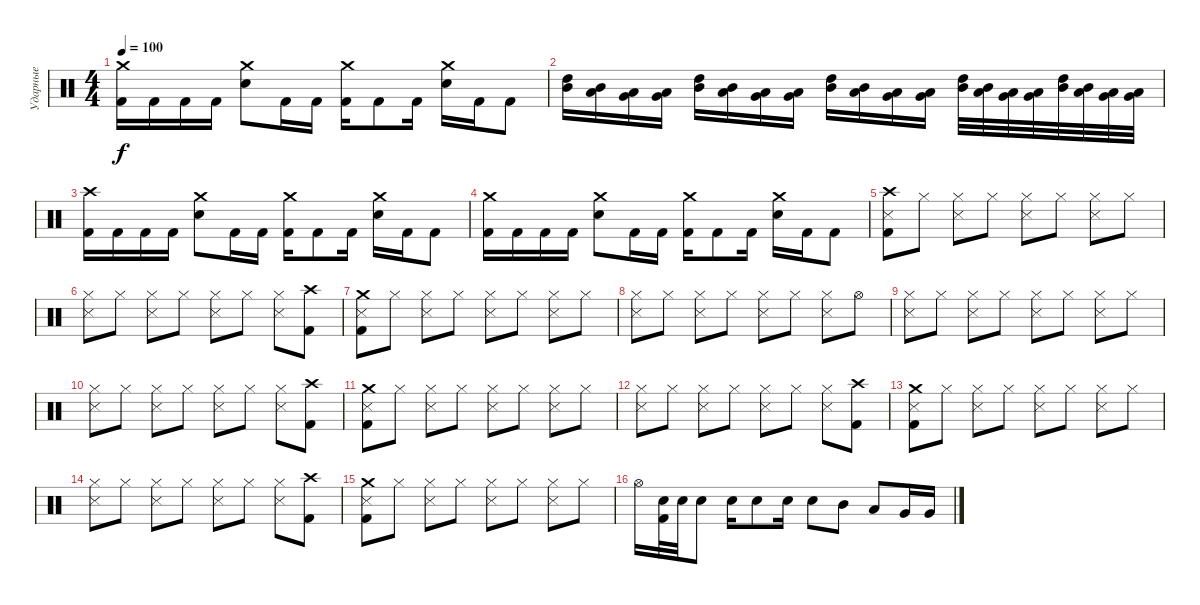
\track ("Ударные" "Ударные") {instrument percussion}
\staff {score}
\articulation defaults
\ts (4 4)
\tempo 100
\clef neutral
\ks c
("Crash medium (hit)" "Kick (hit) 2").16{dy f} "Kick (hit) 2".16 "Kick (hit) 2".16 "Kick (hit) 2".16 ("Crash medium (hit)" "Electric Snare (hit)").8 "Kick (hit) 2".16 "Kick (hit) 2".16 ("Crash medium (hit)" "Kick (hit) 2").16 "Kick (hit) 2".8 "Kick (hit) 2".16 ("Crash medium (hit)" "Electric Snare (hit)").16 "Kick (hit) 2".16 "Kick (hit) 2".8 |
("High Tom (hit)" "Mid Tom (hit)").16 ("Mid Tom (hit)" "Low Tom (hit)").16 ("Low Tom (hit)" "Very Low Tom (hit)").16 ("Very Low Tom (hit)" "Low Floor Tom (hit)").16 ("High Tom (hit)" "Mid Tom (hit)").16 ("Mid Tom (hit)" "Low Tom (hit)").16 ("Low Tom (hit)" "Very Low Tom (hit)").16 ("Very Low Tom (hit)" "Low Floor Tom (hit)").16 ("High Tom (hit)" "Mid Tom (hit)").16 ("Mid Tom (hit)" "Low Tom (hit)").16 ("Low Tom (hit)" "Very Low Tom (hit)").16 ("Very Low Tom (hit)" "Low Floor Tom (hit)").16 ("High Tom (hit)" "Mid Tom (hit)").32 ("Mid Tom (hit)" "Low Tom (hit)").32 ("Low Tom (hit)" "Very Low Tom (hit)").32 ("Very Low Tom (hit)" "Low Floor Tom (hit)").32 ("High Tom (hit)" "Mid Tom (hit)").32 ("Mid Tom (hit)" "Low Tom (hit)").32 ("Low Tom (hit)" "Very Low Tom (hit)").32 ("Very Low Tom (hit)" "Low Floor Tom (hit)").32 |
("Crash high (hit)" "Kick (hit) 2").16 "Kick (hit) 2".16 "Kick (hit) 2".16 "Kick (hit) 2".16 ("Crash medium (hit)" "Electric Snare (hit)").8 "Kick (hit) 2".16 "Kick (hit) 2".16 ("Crash medium (hit)" "Kick (hit) 2").16 "Kick (hit) 2".8 "Kick (hit) 2".16 ("Crash medium (hit)" "Electric Snare (hit)").16 "Kick (hit) 2".16 "Kick (hit) 2".8 |
("Crash medium (hit)" "Kick (hit) 2").16 "Kick (hit) 2".16 "Kick (hit) 2".16 "Kick (hit) 2".16 ("Crash medium (hit)" "Electric Snare (hit)").8 "Kick (hit) 2".16 "Kick (hit) 2".16 ("Crash medium (hit)" "Kick (hit) 2").16 "Kick (hit) 2".8 "Kick (hit) 2".16 ("Crash medium (hit)" "Electric Snare (hit)").16 "Kick (hit) 2".16 "Kick (hit) 2".8 |
("Crash high (hit)" "Metronome (hit)" "Kick (hit) 2").8 "Hi-Hat (closed)".8 ("Hi-Hat (closed)" "Metronome (hit)").8 "Hi-Hat (closed)".8 ("Hi-Hat (closed)" "Metronome (hit)").8 "Hi-Hat (closed)".8 ("Hi-Hat (closed)" "Metronome (hit)").8 "Hi-Hat (closed)".8 |
("Hi-Hat (closed)" "Metronome (hit)").8 "Hi-Hat (closed)".8 ("Hi-Hat (closed)" "Metronome (hit)").8 "Hi-Hat (closed)".8 ("Hi-Hat (closed)" "Metronome (hit)").8 "Hi-Hat (closed)".8 ("Hi-Hat (closed)" "Metronome (hit)").8 ("Crash high (hit)" "Kick (hit) 2").8 |
("Crash medium (hit)" "Metronome (hit)" "Kick (hit) 2").8 "Hi-Hat (closed)".8 ("Hi-Hat (closed)" "Metronome (hit)").8 "Hi-Hat (closed)".8 ("Hi-Hat (closed)" "Metronome (hit)").8 "Hi-Hat (closed)".8 ("Hi-Hat (closed)" "Metronome (hit)").8 "Hi-Hat (closed)".8 |
("Hi-Hat (closed)" "Metronome (hit)").8 "Hi-Hat (closed)".8 ("Hi-Hat (closed)" "Metronome (hit)").8 "Hi-Hat (closed)".8 ("Hi-Hat (closed)" "Metronome (hit)").8 "Hi-Hat (closed)".8 ("Hi-Hat (closed)" "Metronome (hit)").8 "Hi-Hat (open)".8 |
("Hi-Hat (closed)" "Metronome (hit)").8 "Hi-Hat (closed)".8 ("Hi-Hat (closed)" "Metronome (hit)").8 "Hi-Hat (closed)".8 ("Hi-Hat (closed)" "Metronome (hit)").8 "Hi-Hat (closed)".8 ("Hi-Hat (closed)" "Metronome (hit)").8 "Hi-Hat (closed)".8 |
("Hi-Hat (closed)" "Metronome (hit)").8 "Hi-Hat (closed)".8 ("Hi-Hat (closed)" "Metronome (hit)").8 "Hi-Hat (closed)".8 ("Hi-Hat (closed)" "Metronome (hit)").8 "Hi-Hat (closed)".8 ("Hi-Hat (closed)" "Metronome (hit)").8 ("Crash high (hit)" "Kick (hit) 2").8 |
("Crash medium (hit)" "Metronome (hit)" "Kick (hit) 2").8 "Hi-Hat (closed)".8 ("Hi-Hat (closed)" "Metronome (hit)").8 "Hi-Hat (closed)".8 ("Hi-Hat (closed)" "Metronome (hit)").8 "Hi-Hat (closed)".8 ("Hi-Hat (closed)" "Metronome (hit)").8 "Hi-Hat (closed)".8 |
("Hi-Hat (closed)" "Metronome (hit)").8 "Hi-Hat (closed)".8 ("Hi-Hat (closed)" "Metronome (hit)").8 "Hi-Hat (closed)".8 ("Hi-Hat (closed)" "Metronome (hit)").8 "Hi-Hat (closed)".8 ("Hi-Hat (closed)" "Metronome (hit)").8 ("Crash high (hit)" "Kick (hit) 2").8 |
("Crash medium (hit)" "Metronome (hit)" "Kick (hit) 2").8 "Hi-Hat (closed)".8 ("Hi-Hat (closed)" "Metronome (hit)").8 "Hi-Hat (closed)".8 ("Hi-Hat (closed)" "Metronome (hit)").8 "Hi-Hat (closed)".8 ("Hi-Hat (closed)" "Metronome (hit)").8 "Hi-Hat (closed)".8 |
("Hi-Hat (closed)" "Metronome (hit)").8 "Hi-Hat (closed)".8 ("Hi-Hat (closed)" "Metronome (hit)").8 "Hi-Hat (closed)".8 ("Hi-Hat (closed)" "Metronome (hit)").8 "Hi-Hat (closed)".8 ("Hi-Hat (closed)" "Metronome (hit)").8 ("Crash high (hit)" "Kick (hit) 2").8 |
("Crash medium (hit)" "Metronome (hit)" "Kick (hit) 2").8 "Hi-Hat (closed)".8 ("Hi-Hat (closed)" "Metronome (hit)").8 "Hi-Hat (closed)".8 ("Hi-Hat (closed)" "Metronome (hit)").8 "Hi-Hat (closed)".8 ("Hi-Hat (closed)" "Metronome (hit)").8 "Hi-Hat (closed)".8 |
"Hi-Hat (open)".16 ("Electric Snare (hit)" "Kick (hit) 2").32 "Electric Snare (hit)".32 "Electric Snare (hit)".8 "Electric Snare (hit)".16 "Electric Snare (hit)".8 "Electric Snare (hit)".16 "Electric Snare (hit)".8 "Mid Tom (hit)".8 "Low Tom (hit)".8 "Very Low Tom (hit)".16 "Very Low Tom (hit)".16
